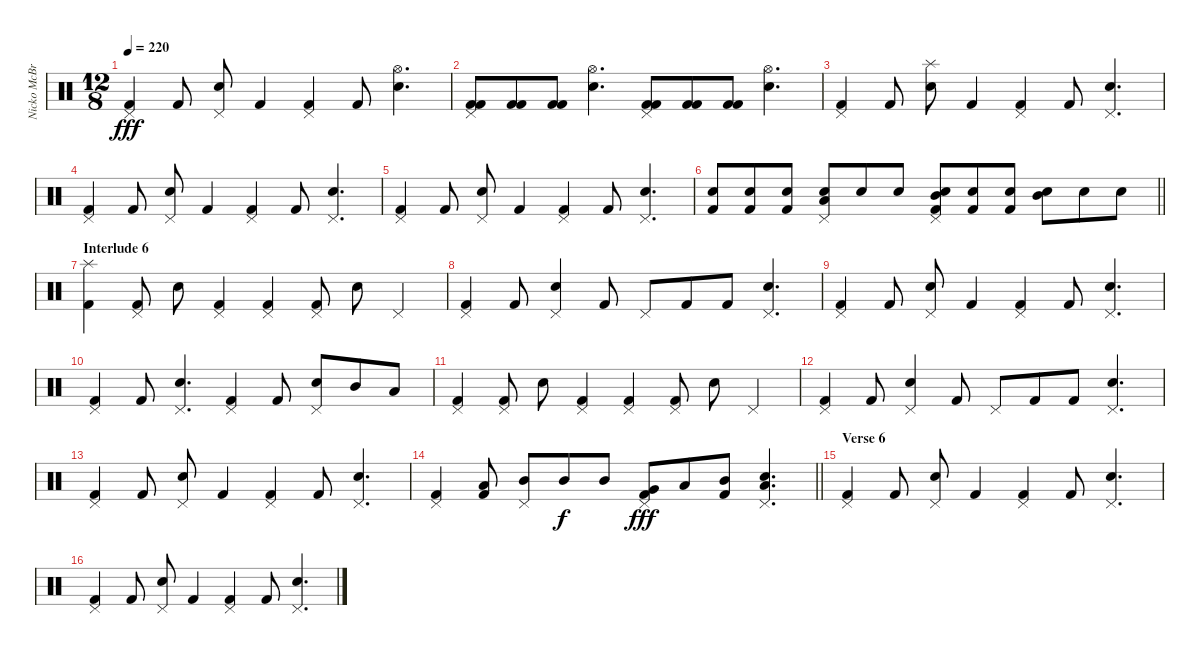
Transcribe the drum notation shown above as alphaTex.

\track ("Nicko McBrain" "Nicko McBr") {instrument percussion}
\staff {score}
\articulation defaults
\ts (12 8)
\tempo 220
\clef neutral
\ks c
("Pedal Hi-Hat (hit)" "Kick (hit) 2").4{dy fff} "Kick (hit) 2".8 ("Snare (hit) 2" "Pedal Hi-Hat (hit)").8 "Kick (hit) 2".4 ("Pedal Hi-Hat (hit)" "Kick (hit) 2").4 "Kick (hit) 2".8 ("Snare (hit) 2" "Hi-Hat (open)").4{d} |
("Pedal Hi-Hat (hit)" "Kick (hit) 2" "Kick (hit) 2").8 ("Kick (hit) 2" "Kick (hit) 2").8 ("Kick (hit) 2" "Kick (hit) 2").8 ("Snare (hit) 2" "Hi-Hat (open)").4{d} ("Pedal Hi-Hat (hit)" "Kick (hit) 2" "Kick (hit) 2").8 ("Kick (hit) 2" "Kick (hit) 2").8 ("Kick (hit) 2" "Kick (hit) 2").8 ("Snare (hit) 2" "Hi-Hat (open)").4{d} |
("Pedal Hi-Hat (hit)" "Kick (hit) 2").4 "Kick (hit) 2".8 ("Snare (hit) 2" "Splash (hit)").8 "Kick (hit) 2".4 ("Pedal Hi-Hat (hit)" "Kick (hit) 2").4 "Kick (hit) 2".8 ("Snare (hit) 2" "Pedal Hi-Hat (hit)").4{d} |
("Pedal Hi-Hat (hit)" "Kick (hit) 2").4 "Kick (hit) 2".8 ("Snare (hit) 2" "Pedal Hi-Hat (hit)").8 "Kick (hit) 2".4 ("Pedal Hi-Hat (hit)" "Kick (hit) 2").4 "Kick (hit) 2".8 ("Snare (hit) 2" "Pedal Hi-Hat (hit)").4{d} |
("Pedal Hi-Hat (hit)" "Kick (hit) 2").4 "Kick (hit) 2".8 ("Snare (hit) 2" "Pedal Hi-Hat (hit)").8 "Kick (hit) 2".4 ("Pedal Hi-Hat (hit)" "Kick (hit) 2").4 "Kick (hit) 2".8 ("Snare (hit) 2" "Pedal Hi-Hat (hit)").4{d} |
\barLineRight lightlight
("Snare (hit) 2" "Kick (hit) 2").8 ("Snare (hit) 2" "Kick (hit) 2").8 ("Snare (hit) 2" "Kick (hit) 2").8 ("Snare (hit) 2" "Low Tom (hit)" "Pedal Hi-Hat (hit)").8 "Snare (hit) 2".8 "Snare (hit) 2".8 ("Mid Tom (hit)" "Snare (hit) 2" "Pedal Hi-Hat (hit)" "Kick (hit) 2").8 ("Snare (hit) 2" "Kick (hit) 2").8 ("Snare (hit) 2" "Kick (hit) 2").8 ("Mid Tom (hit)" "Snare (hit) 2").8 "Snare (hit) 2".8 "Snare (hit) 2".8 |
\section ("" "Interlude 6")
("Splash (hit)" "Kick (hit) 2").4 ("Pedal Hi-Hat (hit)" "Kick (hit) 2").8 "Snare (hit) 2".8 ("Pedal Hi-Hat (hit)" "Kick (hit) 2").4 ("Pedal Hi-Hat (hit)" "Kick (hit) 2").4 ("Pedal Hi-Hat (hit)" "Kick (hit) 2").8 "Snare (hit) 2".8 "Pedal Hi-Hat (hit)".4 |
("Pedal Hi-Hat (hit)" "Kick (hit) 2").4 "Kick (hit) 2".8 ("Snare (hit) 2" "Pedal Hi-Hat (hit)").4 "Kick (hit) 2".8 "Pedal Hi-Hat (hit)".8 "Kick (hit) 2".8 "Kick (hit) 2".8 ("Snare (hit) 2" "Pedal Hi-Hat (hit)").4{d} |
("Pedal Hi-Hat (hit)" "Kick (hit) 2").4 "Kick (hit) 2".8 ("Snare (hit) 2" "Pedal Hi-Hat (hit)").8 "Kick (hit) 2".4 ("Pedal Hi-Hat (hit)" "Kick (hit) 2").4 "Kick (hit) 2".8 ("Snare (hit) 2" "Pedal Hi-Hat (hit)").4{d} |
("Pedal Hi-Hat (hit)" "Kick (hit) 2").4 "Kick (hit) 2".8 ("Snare (hit) 2" "Pedal Hi-Hat (hit)").4{d} ("Pedal Hi-Hat (hit)" "Kick (hit) 2").4 "Kick (hit) 2".8 ("Snare (hit) 2" "Pedal Hi-Hat (hit)").8 "Mid Tom (hit)".8 "Low Tom (hit)".8 |
("Pedal Hi-Hat (hit)" "Kick (hit) 2").4 ("Pedal Hi-Hat (hit)" "Kick (hit) 2").8 "Snare (hit) 2".8 ("Pedal Hi-Hat (hit)" "Kick (hit) 2").4 ("Pedal Hi-Hat (hit)" "Kick (hit) 2").4 ("Pedal Hi-Hat (hit)" "Kick (hit) 2").8 "Snare (hit) 2".8 "Pedal Hi-Hat (hit)".4 |
("Pedal Hi-Hat (hit)" "Kick (hit) 2").4 "Kick (hit) 2".8 ("Snare (hit) 2" "Pedal Hi-Hat (hit)").4 "Kick (hit) 2".8 "Pedal Hi-Hat (hit)".8 "Kick (hit) 2".8 "Kick (hit) 2".8 ("Snare (hit) 2" "Pedal Hi-Hat (hit)").4{d} |
("Pedal Hi-Hat (hit)" "Kick (hit) 2").4 "Kick (hit) 2".8 ("Snare (hit) 2" "Pedal Hi-Hat (hit)").8 "Kick (hit) 2".4 ("Pedal Hi-Hat (hit)" "Kick (hit) 2").4 "Kick (hit) 2".8 ("Snare (hit) 2" "Pedal Hi-Hat (hit)").4{d} |
\barLineRight lightlight
("Pedal Hi-Hat (hit)" "Kick (hit) 2").4 ("Low Tom (hit)" "Kick (hit) 2").8 ("Mid Tom (hit)" "Pedal Hi-Hat (hit)").8 "Mid Tom (hit)".8{dy f} "Mid Tom (hit)".8 ("Very Low Tom (hit)" "Pedal Hi-Hat (hit)" "Kick (hit) 2").8{dy fff} "Low Tom (hit)".8 ("Mid Tom (hit)" "Kick (hit) 2").8 ("Snare (hit) 2" "Low Tom (hit)" "Pedal Hi-Hat (hit)").4{d} |
\section ("" "Verse 6")
("Pedal Hi-Hat (hit)" "Kick (hit) 2").4 "Kick (hit) 2".8 ("Snare (hit) 2" "Pedal Hi-Hat (hit)").8 "Kick (hit) 2".4 ("Pedal Hi-Hat (hit)" "Kick (hit) 2").4 "Kick (hit) 2".8 ("Snare (hit) 2" "Pedal Hi-Hat (hit)").4{d} |
("Pedal Hi-Hat (hit)" "Kick (hit) 2").4 "Kick (hit) 2".8 ("Snare (hit) 2" "Pedal Hi-Hat (hit)").8 "Kick (hit) 2".4 ("Pedal Hi-Hat (hit)" "Kick (hit) 2").4 "Kick (hit) 2".8 ("Snare (hit) 2" "Pedal Hi-Hat (hit)").4{d}
